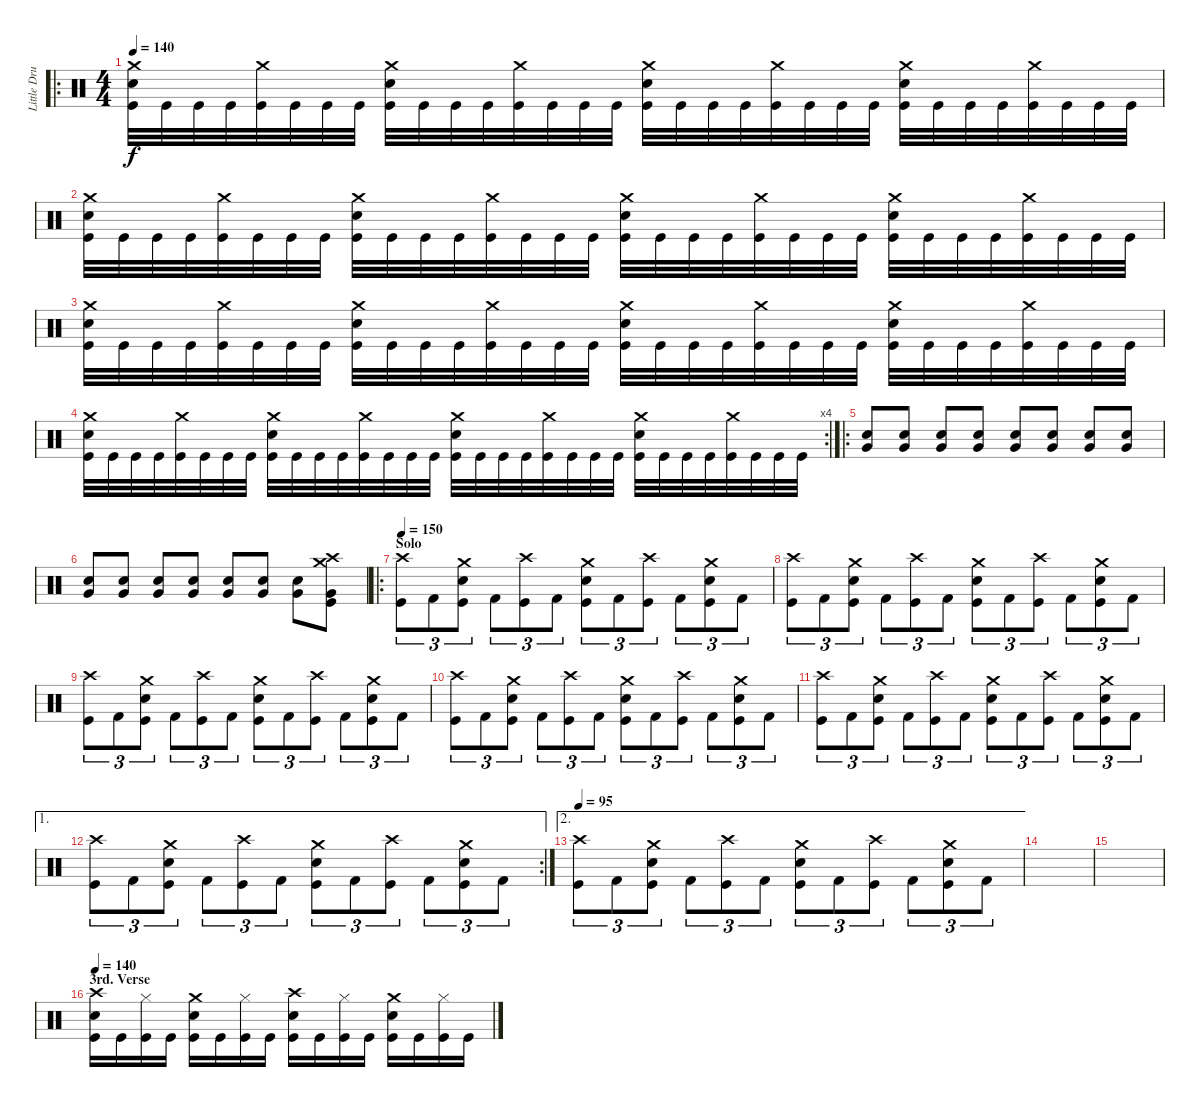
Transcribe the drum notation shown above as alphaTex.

\track ("Little Drummer Boy" "Little Dru") {instrument percussion}
\staff {score}
\articulation defaults
\ro
\ts (4 4)
\tempo 140
\clef neutral
\ks c
("Crash medium (hit)" "Snare (hit) 2" "Kick (hit)").32{dy f} "Kick (hit)".32 "Kick (hit)".32 "Kick (hit)".32 ("Crash medium (hit)" "Kick (hit)").32 "Kick (hit)".32 "Kick (hit)".32 "Kick (hit)".32 ("Crash medium (hit)" "Snare (hit) 2" "Kick (hit)").32 "Kick (hit)".32 "Kick (hit)".32 "Kick (hit)".32 ("Crash medium (hit)" "Kick (hit)").32 "Kick (hit)".32 "Kick (hit)".32 "Kick (hit)".32 ("Crash medium (hit)" "Snare (hit) 2" "Kick (hit)").32 "Kick (hit)".32 "Kick (hit)".32 "Kick (hit)".32 ("Crash medium (hit)" "Kick (hit)").32 "Kick (hit)".32 "Kick (hit)".32 "Kick (hit)".32 ("Crash medium (hit)" "Snare (hit) 2" "Kick (hit)").32 "Kick (hit)".32 "Kick (hit)".32 "Kick (hit)".32 ("Crash medium (hit)" "Kick (hit)").32 "Kick (hit)".32 "Kick (hit)".32 "Kick (hit)".32 |
("Crash medium (hit)" "Snare (hit) 2" "Kick (hit)").32 "Kick (hit)".32 "Kick (hit)".32 "Kick (hit)".32 ("Crash medium (hit)" "Kick (hit)").32 "Kick (hit)".32 "Kick (hit)".32 "Kick (hit)".32 ("Crash medium (hit)" "Snare (hit) 2" "Kick (hit)").32 "Kick (hit)".32 "Kick (hit)".32 "Kick (hit)".32 ("Crash medium (hit)" "Kick (hit)").32 "Kick (hit)".32 "Kick (hit)".32 "Kick (hit)".32 ("Crash medium (hit)" "Snare (hit) 2" "Kick (hit)").32 "Kick (hit)".32 "Kick (hit)".32 "Kick (hit)".32 ("Crash medium (hit)" "Kick (hit)").32 "Kick (hit)".32 "Kick (hit)".32 "Kick (hit)".32 ("Crash medium (hit)" "Snare (hit) 2" "Kick (hit)").32 "Kick (hit)".32 "Kick (hit)".32 "Kick (hit)".32 ("Crash medium (hit)" "Kick (hit)").32 "Kick (hit)".32 "Kick (hit)".32 "Kick (hit)".32 |
("Crash medium (hit)" "Snare (hit) 2" "Kick (hit)").32 "Kick (hit)".32 "Kick (hit)".32 "Kick (hit)".32 ("Crash medium (hit)" "Kick (hit)").32 "Kick (hit)".32 "Kick (hit)".32 "Kick (hit)".32 ("Crash medium (hit)" "Snare (hit) 2" "Kick (hit)").32 "Kick (hit)".32 "Kick (hit)".32 "Kick (hit)".32 ("Crash medium (hit)" "Kick (hit)").32 "Kick (hit)".32 "Kick (hit)".32 "Kick (hit)".32 ("Crash medium (hit)" "Snare (hit) 2" "Kick (hit)").32 "Kick (hit)".32 "Kick (hit)".32 "Kick (hit)".32 ("Crash medium (hit)" "Kick (hit)").32 "Kick (hit)".32 "Kick (hit)".32 "Kick (hit)".32 ("Crash medium (hit)" "Snare (hit) 2" "Kick (hit)").32 "Kick (hit)".32 "Kick (hit)".32 "Kick (hit)".32 ("Crash medium (hit)" "Kick (hit)").32 "Kick (hit)".32 "Kick (hit)".32 "Kick (hit)".32 |
\rc 4
("Crash medium (hit)" "Snare (hit) 2" "Kick (hit)").32 "Kick (hit)".32 "Kick (hit)".32 "Kick (hit)".32 ("Crash medium (hit)" "Kick (hit)").32 "Kick (hit)".32 "Kick (hit)".32 "Kick (hit)".32 ("Crash medium (hit)" "Snare (hit) 2" "Kick (hit)").32 "Kick (hit)".32 "Kick (hit)".32 "Kick (hit)".32 ("Crash medium (hit)" "Kick (hit)").32 "Kick (hit)".32 "Kick (hit)".32 "Kick (hit)".32 ("Crash medium (hit)" "Snare (hit) 2" "Kick (hit)").32 "Kick (hit)".32 "Kick (hit)".32 "Kick (hit)".32 ("Crash medium (hit)" "Kick (hit)").32 "Kick (hit)".32 "Kick (hit)".32 "Kick (hit)".32 ("Crash medium (hit)" "Snare (hit) 2" "Kick (hit)").32 "Kick (hit)".32 "Kick (hit)".32 "Kick (hit)".32 ("Crash medium (hit)" "Kick (hit)").32 "Kick (hit)".32 "Kick (hit)".32 "Kick (hit)".32 |
\ro
("Snare (hit) 2" "Very Low Tom (hit)").8 ("Snare (hit) 2" "Very Low Tom (hit)").8 ("Snare (hit) 2" "Very Low Tom (hit)").8 ("Snare (hit) 2" "Very Low Tom (hit)").8 ("Snare (hit) 2" "Very Low Tom (hit)").8 ("Snare (hit) 2" "Very Low Tom (hit)").8 ("Snare (hit) 2" "Very Low Tom (hit)").8 ("Snare (hit) 2" "Very Low Tom (hit)").8 |
("Snare (hit) 2" "Very Low Tom (hit)").8 ("Snare (hit) 2" "Very Low Tom (hit)").8 ("Snare (hit) 2" "Very Low Tom (hit)").8 ("Snare (hit) 2" "Very Low Tom (hit)").8 ("Snare (hit) 2" "Very Low Tom (hit)").8 ("Snare (hit) 2" "Very Low Tom (hit)").8 ("Snare (hit) 2" "Very Low Tom (hit)").8 ("Crash high (hit)" "Crash medium (hit)" "Kick (hit)" "Very Low Tom (hit)").8 |
\ro
\section ("" "Solo")
\tempo 150
("Crash high (hit)" "Kick (hit)").8{tu (3 2)} "Kick (hit) 2".8{tu (3 2)} ("Crash medium (hit)" "Snare (hit) 2" "Kick (hit)").8{tu (3 2)} "Kick (hit) 2".8{tu (3 2)} ("Crash high (hit)" "Kick (hit)").8{tu (3 2)} "Kick (hit) 2".8{tu (3 2)} ("Crash medium (hit)" "Snare (hit) 2" "Kick (hit)").8{tu (3 2)} "Kick (hit) 2".8{tu (3 2)} ("Crash high (hit)" "Kick (hit)").8{tu (3 2)} "Kick (hit) 2".8{tu (3 2)} ("Crash medium (hit)" "Snare (hit) 2" "Kick (hit)").8{tu (3 2)} "Kick (hit) 2".8{tu (3 2)} |
("Crash high (hit)" "Kick (hit)").8{tu (3 2)} "Kick (hit) 2".8{tu (3 2)} ("Crash medium (hit)" "Snare (hit) 2" "Kick (hit)").8{tu (3 2)} "Kick (hit) 2".8{tu (3 2)} ("Crash high (hit)" "Kick (hit)").8{tu (3 2)} "Kick (hit) 2".8{tu (3 2)} ("Crash medium (hit)" "Snare (hit) 2" "Kick (hit)").8{tu (3 2)} "Kick (hit) 2".8{tu (3 2)} ("Crash high (hit)" "Kick (hit)").8{tu (3 2)} "Kick (hit) 2".8{tu (3 2)} ("Crash medium (hit)" "Snare (hit) 2" "Kick (hit)").8{tu (3 2)} "Kick (hit) 2".8{tu (3 2)} |
("Crash high (hit)" "Kick (hit)").8{tu (3 2)} "Kick (hit) 2".8{tu (3 2)} ("Crash medium (hit)" "Snare (hit) 2" "Kick (hit)").8{tu (3 2)} "Kick (hit) 2".8{tu (3 2)} ("Crash high (hit)" "Kick (hit)").8{tu (3 2)} "Kick (hit) 2".8{tu (3 2)} ("Crash medium (hit)" "Snare (hit) 2" "Kick (hit)").8{tu (3 2)} "Kick (hit) 2".8{tu (3 2)} ("Crash high (hit)" "Kick (hit)").8{tu (3 2)} "Kick (hit) 2".8{tu (3 2)} ("Crash medium (hit)" "Snare (hit) 2" "Kick (hit)").8{tu (3 2)} "Kick (hit) 2".8{tu (3 2)} |
("Crash high (hit)" "Kick (hit)").8{tu (3 2)} "Kick (hit) 2".8{tu (3 2)} ("Crash medium (hit)" "Snare (hit) 2" "Kick (hit)").8{tu (3 2)} "Kick (hit) 2".8{tu (3 2)} ("Crash high (hit)" "Kick (hit)").8{tu (3 2)} "Kick (hit) 2".8{tu (3 2)} ("Crash medium (hit)" "Snare (hit) 2" "Kick (hit)").8{tu (3 2)} "Kick (hit) 2".8{tu (3 2)} ("Crash high (hit)" "Kick (hit)").8{tu (3 2)} "Kick (hit) 2".8{tu (3 2)} ("Crash medium (hit)" "Snare (hit) 2" "Kick (hit)").8{tu (3 2)} "Kick (hit) 2".8{tu (3 2)} |
("Crash high (hit)" "Kick (hit)").8{tu (3 2)} "Kick (hit) 2".8{tu (3 2)} ("Crash medium (hit)" "Snare (hit) 2" "Kick (hit)").8{tu (3 2)} "Kick (hit) 2".8{tu (3 2)} ("Crash high (hit)" "Kick (hit)").8{tu (3 2)} "Kick (hit) 2".8{tu (3 2)} ("Crash medium (hit)" "Snare (hit) 2" "Kick (hit)").8{tu (3 2)} "Kick (hit) 2".8{tu (3 2)} ("Crash high (hit)" "Kick (hit)").8{tu (3 2)} "Kick (hit) 2".8{tu (3 2)} ("Crash medium (hit)" "Snare (hit) 2" "Kick (hit)").8{tu (3 2)} "Kick (hit) 2".8{tu (3 2)} |
\ae 1
\rc 2
("Crash high (hit)" "Kick (hit)").8{tu (3 2)} "Kick (hit) 2".8{tu (3 2)} ("Crash medium (hit)" "Snare (hit) 2" "Kick (hit)").8{tu (3 2)} "Kick (hit) 2".8{tu (3 2)} ("Crash high (hit)" "Kick (hit)").8{tu (3 2)} "Kick (hit) 2".8{tu (3 2)} ("Crash medium (hit)" "Snare (hit) 2" "Kick (hit)").8{tu (3 2)} "Kick (hit) 2".8{tu (3 2)} ("Crash high (hit)" "Kick (hit)").8{tu (3 2)} "Kick (hit) 2".8{tu (3 2)} ("Crash medium (hit)" "Snare (hit) 2" "Kick (hit)").8{tu (3 2)} "Kick (hit) 2".8{tu (3 2)} |
\ae 2
\tempo 95
("Crash high (hit)" "Kick (hit)").8{tu (3 2)} "Kick (hit) 2".8{tu (3 2)} ("Crash medium (hit)" "Snare (hit) 2" "Kick (hit)").8{tu (3 2)} "Kick (hit) 2".8{tu (3 2)} ("Crash high (hit)" "Kick (hit)").8{tu (3 2)} "Kick (hit) 2".8{tu (3 2)} ("Crash medium (hit)" "Snare (hit) 2" "Kick (hit)").8{tu (3 2)} "Kick (hit) 2".8{tu (3 2)} ("Crash high (hit)" "Kick (hit)").8{tu (3 2)} "Kick (hit) 2".8{tu (3 2)} ("Crash medium (hit)" "Snare (hit) 2" "Kick (hit)").8{tu (3 2)} "Kick (hit) 2".8{tu (3 2)} |
|
|
\section ("" "3rd. Verse")
\tempo 140
("Crash high (hit)" "Snare (hit) 2" "Kick (hit)").16 "Kick (hit)".16 ("Hi-Hat (closed)" "Kick (hit)").16 "Kick (hit)".16 ("Crash medium (hit)" "Snare (hit) 2" "Kick (hit)").16 "Kick (hit)".16 ("Hi-Hat (closed)" "Kick (hit)").16 "Kick (hit)".16 ("Crash high (hit)" "Snare (hit) 2" "Kick (hit)").16 "Kick (hit)".16 ("Hi-Hat (closed)" "Kick (hit)").16 "Kick (hit)".16 ("Crash medium (hit)" "Snare (hit) 2" "Kick (hit)").16 "Kick (hit)".16 ("Hi-Hat (closed)" "Kick (hit)").16 "Kick (hit)".16
